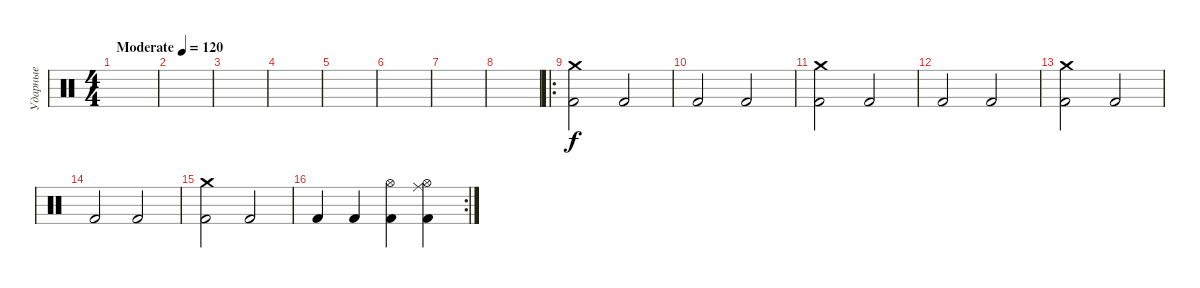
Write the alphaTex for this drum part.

\track ("Ударные" "Ударные") {instrument percussion}
\staff {score}
\articulation defaults
\ts (4 4)
\tempo (120 "Moderate")
\clef neutral
\ks c
|
|
|
|
|
|
|
|
\ro
("Crash medium (hit)" "Kick (hit) 2").2 "Kick (hit) 2".2 |
"Kick (hit) 2".2 "Kick (hit) 2".2 |
("Crash medium (hit)" "Kick (hit) 2").2 "Kick (hit) 2".2 |
"Kick (hit) 2".2 "Kick (hit) 2".2 |
("Crash medium (hit)" "Kick (hit) 2").2 "Kick (hit) 2".2 |
"Kick (hit) 2".2 "Kick (hit) 2".2 |
("Crash medium (hit)" "Kick (hit) 2").2 "Kick (hit) 2".2 |
\rc 2 "Kick (hit) 2".4 "Kick (hit) 2".4
("Hi-Hat (open)" "Kick (hit) 2").4 ("Ride (middle)" "Kick (hit) 2" "Hi-Hat (open)").4
